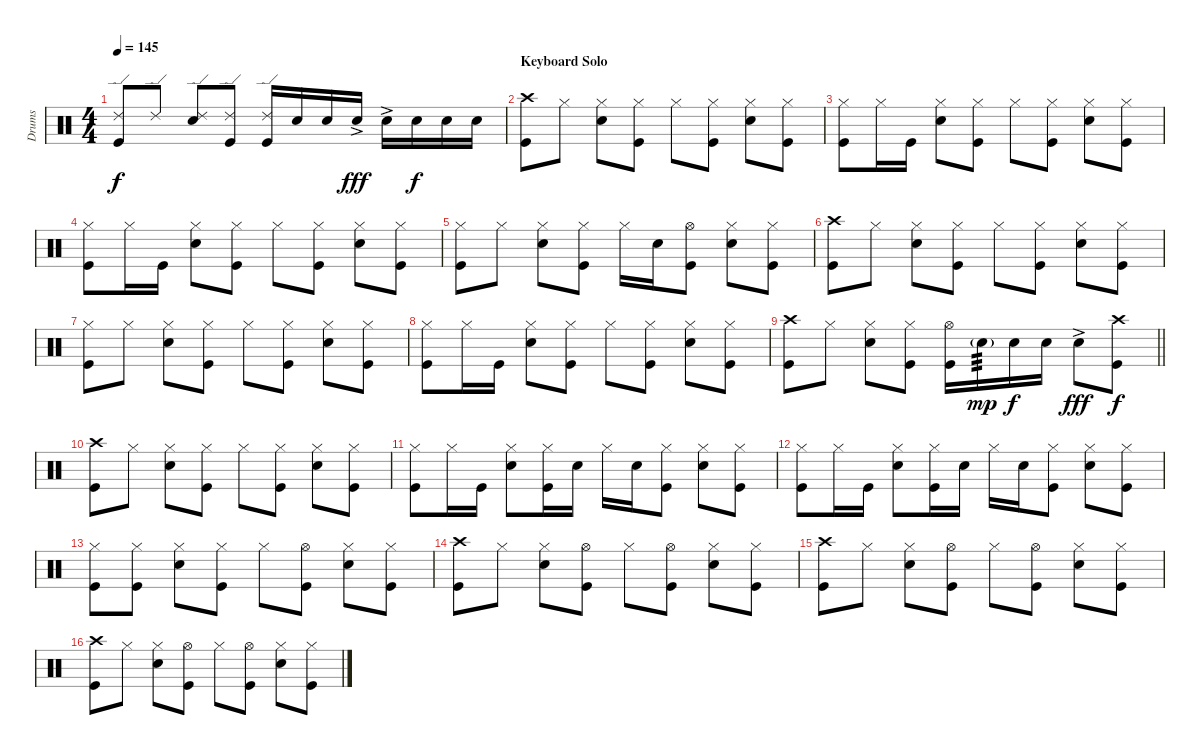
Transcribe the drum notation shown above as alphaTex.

\track ("Drums" "Drums") {instrument percussion}
\staff {score}
\articulation defaults
\ts (4 4)
\tempo 145
\clef neutral
\ks c
("Ride (edge) 2" "Kick (hit)").8{dy f} "Ride (edge) 2".8 ("Ride (edge) 2" "Electric Snare (hit)").8 ("Ride (edge) 2" "Kick (hit)").8 ("Ride (edge) 2" "Kick (hit)").16 "Electric Snare (hit)".16 "Electric Snare (hit)".16 "Electric Snare (hit)"{ac}.16{dy fff} "Electric Snare (hit)"{ac}.16 "Electric Snare (hit)".16{dy f} "Electric Snare (hit)".16 "Electric Snare (hit)".16 |
\section ("" "Keyboard Solo")
("Crash high (hit)" "Kick (hit)").8 "Hi-Hat (closed)".8 ("Hi-Hat (closed)" "Electric Snare (hit)").8 ("Hi-Hat (closed)" "Kick (hit)").8 "Hi-Hat (closed)".8 ("Hi-Hat (closed)" "Kick (hit)").8 ("Hi-Hat (closed)" "Electric Snare (hit)").8 ("Hi-Hat (closed)" "Kick (hit)").8 |
("Hi-Hat (closed)" "Kick (hit)").8 "Hi-Hat (closed)".16 "Kick (hit)".16 ("Hi-Hat (closed)" "Electric Snare (hit)").8 ("Hi-Hat (closed)" "Kick (hit)").8 "Hi-Hat (closed)".8 ("Hi-Hat (closed)" "Kick (hit)").8 ("Hi-Hat (closed)" "Electric Snare (hit)").8 ("Hi-Hat (closed)" "Kick (hit)").8 |
("Hi-Hat (closed)" "Kick (hit)").8 "Hi-Hat (closed)".16 "Kick (hit)".16 ("Hi-Hat (closed)" "Electric Snare (hit)").8 ("Hi-Hat (closed)" "Kick (hit)").8 "Hi-Hat (closed)".8 ("Hi-Hat (closed)" "Kick (hit)").8 ("Hi-Hat (closed)" "Electric Snare (hit)").8 ("Hi-Hat (closed)" "Kick (hit)").8 |
("Hi-Hat (closed)" "Kick (hit)").8 "Hi-Hat (closed)".8 ("Hi-Hat (closed)" "Electric Snare (hit)").8 ("Hi-Hat (closed)" "Kick (hit)").8 "Hi-Hat (closed)".16 "Electric Snare (hit)".16 ("Hi-Hat (open)" "Kick (hit)").8 ("Hi-Hat (closed)" "Electric Snare (hit)").8 ("Hi-Hat (closed)" "Kick (hit)").8 |
("Crash high (hit)" "Kick (hit)").8 "Hi-Hat (closed)".8 ("Hi-Hat (closed)" "Electric Snare (hit)").8 ("Hi-Hat (closed)" "Kick (hit)").8 "Hi-Hat (closed)".8 ("Hi-Hat (closed)" "Kick (hit)").8 ("Hi-Hat (closed)" "Electric Snare (hit)").8 ("Hi-Hat (closed)" "Kick (hit)").8 |
("Hi-Hat (closed)" "Kick (hit)").8 "Hi-Hat (closed)".8 ("Hi-Hat (closed)" "Electric Snare (hit)").8 ("Hi-Hat (closed)" "Kick (hit)").8 "Hi-Hat (closed)".8 ("Hi-Hat (closed)" "Kick (hit)").8 ("Hi-Hat (closed)" "Electric Snare (hit)").8 ("Hi-Hat (closed)" "Kick (hit)").8 |
("Hi-Hat (closed)" "Kick (hit)").8 "Hi-Hat (closed)".16 "Kick (hit)".16 ("Hi-Hat (closed)" "Electric Snare (hit)").8 ("Hi-Hat (closed)" "Kick (hit)").8 "Hi-Hat (closed)".8 ("Hi-Hat (closed)" "Kick (hit)").8 ("Hi-Hat (closed)" "Electric Snare (hit)").8 ("Hi-Hat (closed)" "Kick (hit)").8 |
\barLineRight lightlight
("Crash high (hit)" "Kick (hit)").8 "Hi-Hat (closed)".8 ("Hi-Hat (closed)" "Electric Snare (hit)").8 ("Hi-Hat (closed)" "Kick (hit)").8 ("Hi-Hat (open)" "Kick (hit)").16 "Electric Snare (hit)"{g}.16{tp 3 dy mp} "Electric Snare (hit)".16{dy f} "Electric Snare (hit)".16 "Electric Snare (hit)"{ac}.8{dy fff} ("Crash high (hit)" "Kick (hit)").8{dy f} |
("Crash high (hit)" "Kick (hit)").8 "Hi-Hat (closed)".8 ("Hi-Hat (closed)" "Electric Snare (hit)").8 ("Hi-Hat (closed)" "Kick (hit)").8 "Hi-Hat (closed)".8 ("Hi-Hat (closed)" "Kick (hit)").8 ("Hi-Hat (closed)" "Electric Snare (hit)").8 ("Hi-Hat (closed)" "Kick (hit)").8 |
("Hi-Hat (closed)" "Kick (hit)").8 "Hi-Hat (closed)".16 "Kick (hit)".16 ("Hi-Hat (closed)" "Electric Snare (hit)").8 ("Hi-Hat (closed)" "Kick (hit)").16 "Electric Snare (hit)".16 "Hi-Hat (closed)".16 "Electric Snare (hit)".16 ("Hi-Hat (closed)" "Kick (hit)").8 ("Hi-Hat (closed)" "Electric Snare (hit)").8 ("Hi-Hat (closed)" "Kick (hit)").8 |
("Hi-Hat (closed)" "Kick (hit)").8 "Hi-Hat (closed)".16 "Kick (hit)".16 ("Hi-Hat (closed)" "Electric Snare (hit)").8 ("Hi-Hat (closed)" "Kick (hit)").16 "Electric Snare (hit)".16 "Hi-Hat (closed)".16 "Electric Snare (hit)".16 ("Hi-Hat (closed)" "Kick (hit)").8 ("Hi-Hat (closed)" "Electric Snare (hit)").8 ("Hi-Hat (closed)" "Kick (hit)").8 |
("Hi-Hat (closed)" "Kick (hit)").8 ("Hi-Hat (closed)" "Kick (hit)").8 ("Hi-Hat (closed)" "Electric Snare (hit)").8 ("Hi-Hat (closed)" "Kick (hit)").8 "Hi-Hat (closed)".8 ("Hi-Hat (open)" "Kick (hit)").8 ("Hi-Hat (closed)" "Electric Snare (hit)").8 ("Hi-Hat (closed)" "Kick (hit)").8 |
("Crash high (hit)" "Kick (hit)").8 "Hi-Hat (closed)".8 ("Hi-Hat (closed)" "Electric Snare (hit)").8 ("Hi-Hat (open)" "Kick (hit)").8 "Hi-Hat (closed)".8 ("Hi-Hat (open)" "Kick (hit)").8 ("Hi-Hat (closed)" "Electric Snare (hit)").8 ("Hi-Hat (closed)" "Kick (hit)").8 |
("Crash high (hit)" "Kick (hit)").8 "Hi-Hat (closed)".8 ("Hi-Hat (closed)" "Electric Snare (hit)").8 ("Hi-Hat (open)" "Kick (hit)").8 "Hi-Hat (closed)".8 ("Hi-Hat (open)" "Kick (hit)").8 ("Hi-Hat (closed)" "Electric Snare (hit)").8 ("Hi-Hat (closed)" "Kick (hit)").8 |
("Crash high (hit)" "Kick (hit)").8 "Hi-Hat (closed)".8 ("Hi-Hat (closed)" "Electric Snare (hit)").8 ("Hi-Hat (open)" "Kick (hit)").8 "Hi-Hat (closed)".8 ("Hi-Hat (open)" "Kick (hit)").8 ("Hi-Hat (closed)" "Electric Snare (hit)").8 ("Hi-Hat (closed)" "Kick (hit)").8
